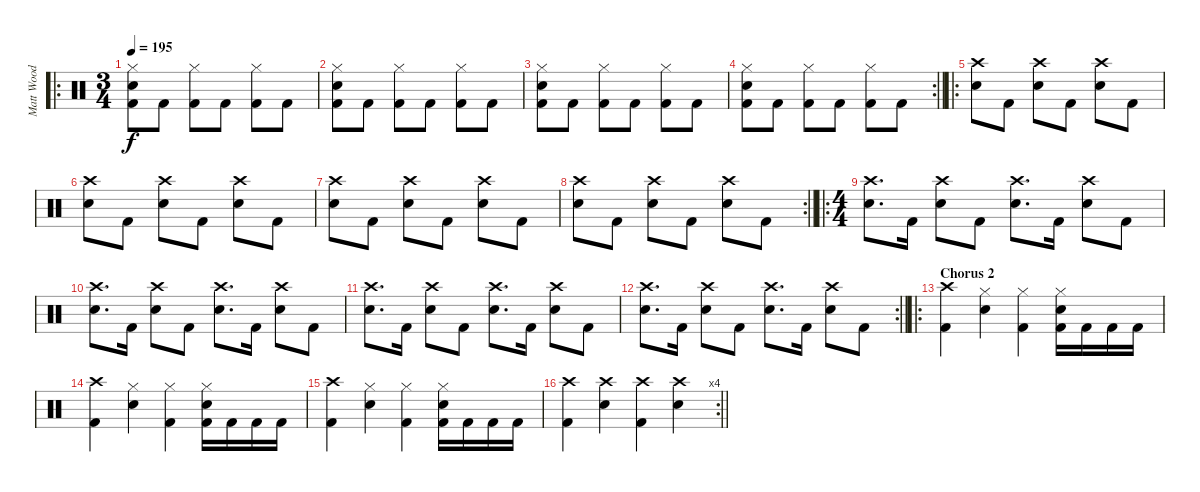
\track ("Matt Wood" "Matt Wood") {instrument percussion}
\staff {score}
\articulation defaults
\ro
\ts (3 4)
\tempo 195
\clef neutral
\ks c
("Hi-Hat (closed)" "Snare (hit) 2" "Kick (hit) 2").8{dy f} "Kick (hit) 2".8 ("Hi-Hat (closed)" "Kick (hit) 2").8 "Kick (hit) 2".8 ("Hi-Hat (closed)" "Kick (hit) 2").8 "Kick (hit) 2".8 |
("Hi-Hat (closed)" "Snare (hit) 2" "Kick (hit) 2").8 "Kick (hit) 2".8 ("Hi-Hat (closed)" "Kick (hit) 2").8 "Kick (hit) 2".8 ("Hi-Hat (closed)" "Kick (hit) 2").8 "Kick (hit) 2".8 |
("Hi-Hat (closed)" "Snare (hit) 2" "Kick (hit) 2").8 "Kick (hit) 2".8 ("Hi-Hat (closed)" "Kick (hit) 2").8 "Kick (hit) 2".8 ("Hi-Hat (closed)" "Kick (hit) 2").8 "Kick (hit) 2".8 |
\rc 2
\barLineRight lightlight
("Hi-Hat (closed)" "Snare (hit) 2" "Kick (hit) 2").8 "Kick (hit) 2".8 ("Hi-Hat (closed)" "Kick (hit) 2").8 "Kick (hit) 2".8 ("Hi-Hat (closed)" "Kick (hit) 2").8 "Kick (hit) 2".8 |
\ro
("Crash high (hit)" "Snare (hit) 2").8 "Kick (hit) 2".8 ("Crash high (hit)" "Snare (hit) 2").8 "Kick (hit) 2".8 ("Crash high (hit)" "Snare (hit) 2").8 "Kick (hit) 2".8 |
("Crash high (hit)" "Snare (hit) 2").8 "Kick (hit) 2".8 ("Crash high (hit)" "Snare (hit) 2").8 "Kick (hit) 2".8 ("Crash high (hit)" "Snare (hit) 2").8 "Kick (hit) 2".8 |
("Crash high (hit)" "Snare (hit) 2").8 "Kick (hit) 2".8 ("Crash high (hit)" "Snare (hit) 2").8 "Kick (hit) 2".8 ("Crash high (hit)" "Snare (hit) 2").8 "Kick (hit) 2".8 |
\rc 2
\barLineRight lightlight
("Crash high (hit)" "Snare (hit) 2").8 "Kick (hit) 2".8 ("Crash high (hit)" "Snare (hit) 2").8 "Kick (hit) 2".8 ("Crash high (hit)" "Snare (hit) 2").8 "Kick (hit) 2".8 |
\ro
\ts (4 4)
("Crash high (hit)" "Snare (hit) 2").8{d} "Kick (hit) 2".16 ("Crash high (hit)" "Snare (hit) 2").8 "Kick (hit) 2".8 ("Crash high (hit)" "Snare (hit) 2").8{d} "Kick (hit) 2".16 ("Crash high (hit)" "Snare (hit) 2").8 "Kick (hit) 2".8 |
("Crash high (hit)" "Snare (hit) 2").8{d} "Kick (hit) 2".16 ("Crash high (hit)" "Snare (hit) 2").8 "Kick (hit) 2".8 ("Crash high (hit)" "Snare (hit) 2").8{d} "Kick (hit) 2".16 ("Crash high (hit)" "Snare (hit) 2").8 "Kick (hit) 2".8 |
("Crash high (hit)" "Snare (hit) 2").8{d} "Kick (hit) 2".16 ("Crash high (hit)" "Snare (hit) 2").8 "Kick (hit) 2".8 ("Crash high (hit)" "Snare (hit) 2").8{d} "Kick (hit) 2".16 ("Crash high (hit)" "Snare (hit) 2").8 "Kick (hit) 2".8 |
\rc 2
\barLineRight lightlight
("Crash high (hit)" "Snare (hit) 2").8{d} "Kick (hit) 2".16 ("Crash high (hit)" "Snare (hit) 2").8 "Kick (hit) 2".8 ("Crash high (hit)" "Snare (hit) 2").8{d} "Kick (hit) 2".16 ("Crash high (hit)" "Snare (hit) 2").8 "Kick (hit) 2".8 |
\ro
\section ("" "Chorus 2")
("Crash high (hit)" "Kick (hit) 2").4 ("Hi-Hat (closed)" "Snare (hit) 2").4 ("Hi-Hat (closed)" "Kick (hit) 2").4 ("Hi-Hat (closed)" "Snare (hit) 2" "Kick (hit) 2").16 "Kick (hit) 2".16 "Kick (hit) 2".16 "Kick (hit) 2".16 |
("Crash high (hit)" "Kick (hit) 2").4 ("Hi-Hat (closed)" "Snare (hit) 2").4 ("Hi-Hat (closed)" "Kick (hit) 2").4 ("Hi-Hat (closed)" "Snare (hit) 2" "Kick (hit) 2").16 "Kick (hit) 2".16 "Kick (hit) 2".16 "Kick (hit) 2".16 |
("Crash high (hit)" "Kick (hit) 2").4 ("Hi-Hat (closed)" "Snare (hit) 2").4 ("Hi-Hat (closed)" "Kick (hit) 2").4 ("Hi-Hat (closed)" "Snare (hit) 2" "Kick (hit) 2").16 "Kick (hit) 2".16 "Kick (hit) 2".16 "Kick (hit) 2".16 |
\rc 4
\barLineRight lightlight
("Crash high (hit)" "Kick (hit) 2").4 ("Crash high (hit)" "Snare (hit) 2").4 ("Crash high (hit)" "Kick (hit) 2").4 ("Crash high (hit)" "Snare (hit) 2").4
